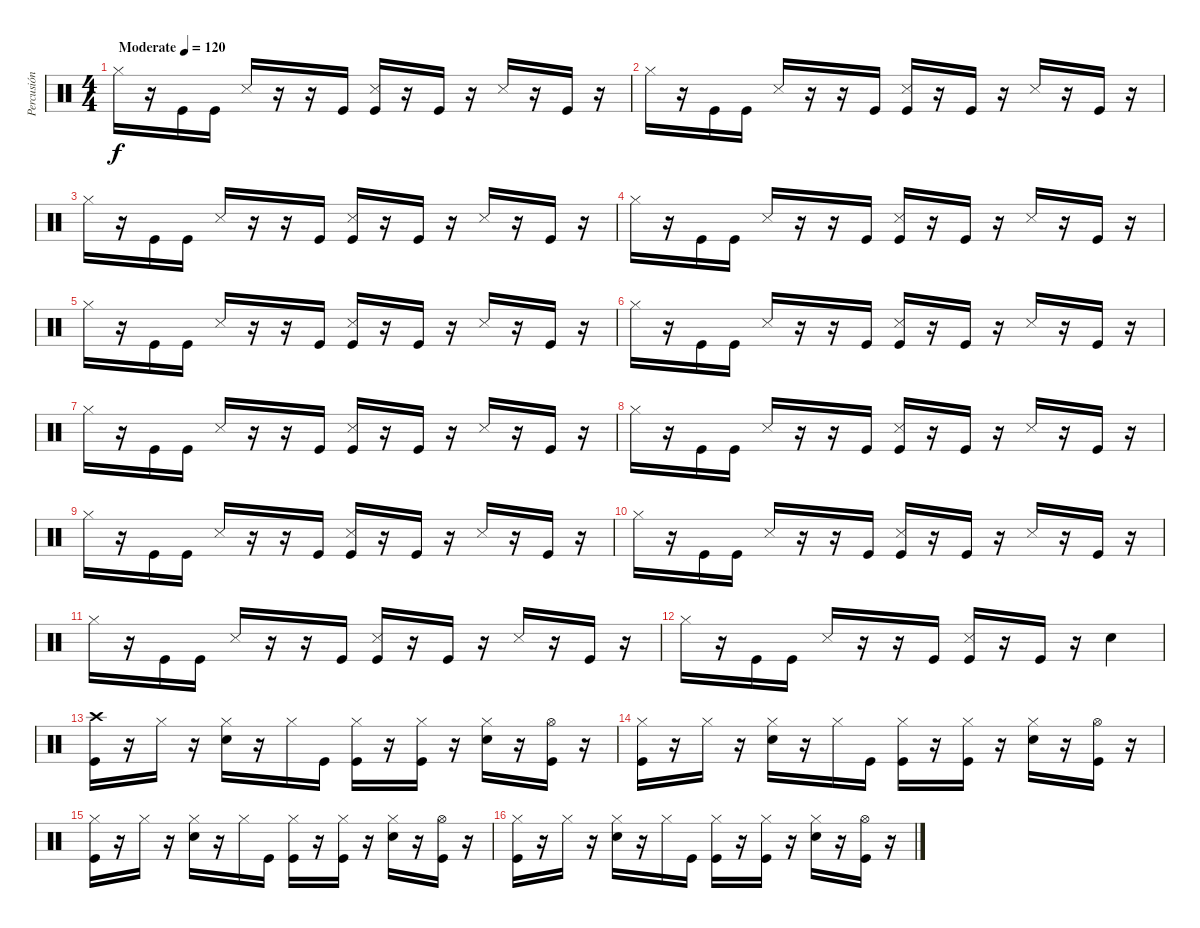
\track ("Percusión" "Percusión") {instrument percussion}
\staff {score}
\articulation defaults
\ts (4 4)
\tempo (120 "Moderate")
\clef neutral
\ks c "Hi-Hat (closed)".16{dy f}
r.16 "Kick (hit)".16 "Kick (hit)".16 "Snare (side stick) 3".16 r.16 r.16 "Kick (hit)".16 ("Snare (side stick) 3" "Kick (hit)").16 r.16 "Kick (hit)".16 r.16 "Snare (side stick) 3".16 r.16 "Kick (hit)".16 r.16 |
"Hi-Hat (closed)".16 r.16 "Kick (hit)".16 "Kick (hit)".16 "Snare (side stick) 3".16 r.16 r.16 "Kick (hit)".16 ("Snare (side stick) 3" "Kick (hit)").16 r.16 "Kick (hit)".16 r.16 "Snare (side stick) 3".16 r.16 "Kick (hit)".16 r.16 |
"Hi-Hat (closed)".16 r.16 "Kick (hit)".16 "Kick (hit)".16 "Snare (side stick) 3".16 r.16 r.16 "Kick (hit)".16 ("Snare (side stick) 3" "Kick (hit)").16 r.16 "Kick (hit)".16 r.16 "Snare (side stick) 3".16 r.16 "Kick (hit)".16 r.16 |
"Hi-Hat (closed)".16 r.16 "Kick (hit)".16 "Kick (hit)".16 "Snare (side stick) 3".16 r.16 r.16 "Kick (hit)".16 ("Snare (side stick) 3" "Kick (hit)").16 r.16 "Kick (hit)".16 r.16 "Snare (side stick) 3".16 r.16 "Kick (hit)".16 r.16 |
"Hi-Hat (closed)".16 r.16 "Kick (hit)".16 "Kick (hit)".16 "Snare (side stick) 3".16 r.16 r.16 "Kick (hit)".16 ("Snare (side stick) 3" "Kick (hit)").16 r.16 "Kick (hit)".16 r.16 "Snare (side stick) 3".16 r.16 "Kick (hit)".16 r.16 |
"Hi-Hat (closed)".16 r.16 "Kick (hit)".16 "Kick (hit)".16 "Snare (side stick) 3".16 r.16 r.16 "Kick (hit)".16 ("Snare (side stick) 3" "Kick (hit)").16 r.16 "Kick (hit)".16 r.16 "Snare (side stick) 3".16 r.16 "Kick (hit)".16 r.16 |
"Hi-Hat (closed)".16 r.16 "Kick (hit)".16 "Kick (hit)".16 "Snare (side stick) 3".16 r.16 r.16 "Kick (hit)".16 ("Snare (side stick) 3" "Kick (hit)").16 r.16 "Kick (hit)".16 r.16 "Snare (side stick) 3".16 r.16 "Kick (hit)".16 r.16 |
"Hi-Hat (closed)".16 r.16 "Kick (hit)".16 "Kick (hit)".16 "Snare (side stick) 3".16 r.16 r.16 "Kick (hit)".16 ("Snare (side stick) 3" "Kick (hit)").16 r.16 "Kick (hit)".16 r.16 "Snare (side stick) 3".16 r.16 "Kick (hit)".16 r.16 |
"Hi-Hat (closed)".16 r.16 "Kick (hit)".16 "Kick (hit)".16 "Snare (side stick) 3".16 r.16 r.16 "Kick (hit)".16 ("Snare (side stick) 3" "Kick (hit)").16 r.16 "Kick (hit)".16 r.16 "Snare (side stick) 3".16 r.16 "Kick (hit)".16 r.16 |
"Hi-Hat (closed)".16 r.16 "Kick (hit)".16 "Kick (hit)".16 "Snare (side stick) 3".16 r.16 r.16 "Kick (hit)".16 ("Snare (side stick) 3" "Kick (hit)").16 r.16 "Kick (hit)".16 r.16 "Snare (side stick) 3".16 r.16 "Kick (hit)".16 r.16 |
"Hi-Hat (closed)".16 r.16 "Kick (hit)".16 "Kick (hit)".16 "Snare (side stick) 3".16 r.16 r.16 "Kick (hit)".16 ("Snare (side stick) 3" "Kick (hit)").16 r.16 "Kick (hit)".16 r.16 "Snare (side stick) 3".16 r.16 "Kick (hit)".16 r.16 |
"Hi-Hat (closed)".16 r.16 "Kick (hit)".16 "Kick (hit)".16 "Snare (side stick) 3".16 r.16 r.16 "Kick (hit)".16 ("Snare (side stick) 3" "Kick (hit)").16 r.16 "Kick (hit)".16 r.16 "Snare (hit) 2".4 |
("Crash high (hit)" "Kick (hit)").16 r.16 "Hi-Hat (closed)".16 r.16 ("Snare (hit) 2" "Hi-Hat (closed)").16 r.16 "Hi-Hat (closed)".16 "Kick (hit)".16 ("Kick (hit)" "Hi-Hat (closed)").16 r.16 ("Kick (hit)" "Hi-Hat (closed)").16 r.16 ("Snare (hit) 2" "Hi-Hat (closed)").16 r.16 ("Kick (hit)" "Hi-Hat (open)").16 r.16 |
("Kick (hit)" "Hi-Hat (closed)").16 r.16 "Hi-Hat (closed)".16 r.16 ("Snare (hit) 2" "Hi-Hat (closed)").16 r.16 "Hi-Hat (closed)".16 "Kick (hit)".16 ("Kick (hit)" "Hi-Hat (closed)").16 r.16 ("Kick (hit)" "Hi-Hat (closed)").16 r.16 ("Snare (hit) 2" "Hi-Hat (closed)").16 r.16 ("Kick (hit)" "Hi-Hat (open)").16 r.16 |
("Kick (hit)" "Hi-Hat (closed)").16 r.16 "Hi-Hat (closed)".16 r.16 ("Snare (hit) 2" "Hi-Hat (closed)").16 r.16 "Hi-Hat (closed)".16 "Kick (hit)".16 ("Kick (hit)" "Hi-Hat (closed)").16 r.16 ("Kick (hit)" "Hi-Hat (closed)").16 r.16 ("Snare (hit) 2" "Hi-Hat (closed)").16 r.16 ("Kick (hit)" "Hi-Hat (open)").16 r.16 |
("Kick (hit)" "Hi-Hat (closed)").16 r.16 "Hi-Hat (closed)".16 r.16 ("Snare (hit) 2" "Hi-Hat (closed)").16 r.16 "Hi-Hat (closed)".16 "Kick (hit)".16 ("Kick (hit)" "Hi-Hat (closed)").16 r.16 ("Kick (hit)" "Hi-Hat (closed)").16 r.16 ("Snare (hit) 2" "Hi-Hat (closed)").16 r.16 ("Kick (hit)" "Hi-Hat (open)").16 r.16
